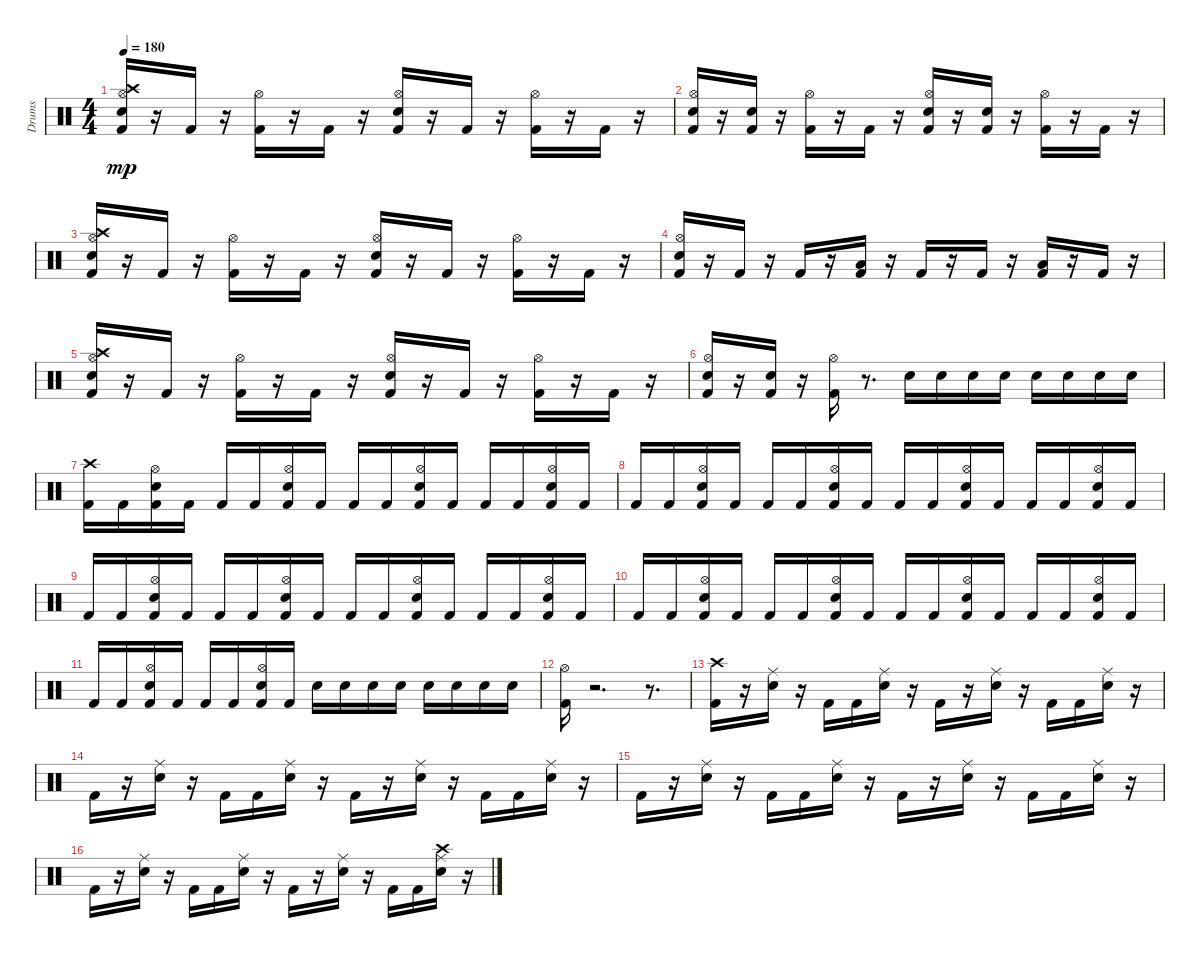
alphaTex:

\track ("Drums" "Drums") {instrument percussion}
\staff {score}
\articulation defaults
\ts (4 4)
\tempo 180
\clef neutral
\ks c
("Electric Snare (hit)" "Crash high (hit)" "Hi-Hat (open)" "Kick (hit) 2").16{dy mp} r.16 "Kick (hit) 2".16 r.16 ("Hi-Hat (open)" "Kick (hit) 2").16 r.16 "Kick (hit) 2".16 r.16 ("Kick (hit) 2" "Electric Snare (hit)" "Hi-Hat (open)").16 r.16 "Kick (hit) 2".16 r.16 ("Kick (hit) 2" "Hi-Hat (open)").16 r.16 "Kick (hit) 2".16 r.16 |
("Kick (hit) 2" "Hi-Hat (open)" "Electric Snare (hit)").16 r.16 ("Electric Snare (hit)" "Kick (hit) 2").16 r.16 ("Hi-Hat (open)" "Kick (hit) 2").16 r.16 "Kick (hit) 2".16 r.16 ("Electric Snare (hit)" "Kick (hit) 2" "Hi-Hat (open)").16 r.16 ("Electric Snare (hit)" "Kick (hit) 2").16 r.16 ("Hi-Hat (open)" "Kick (hit) 2").16 r.16 "Kick (hit) 2".16 r.16 |
("Electric Snare (hit)" "Kick (hit) 2" "Hi-Hat (open)" "Crash high (hit)").16 r.16 "Kick (hit) 2".16 r.16 ("Hi-Hat (open)" "Kick (hit) 2").16 r.16 "Kick (hit) 2".16 r.16 ("Hi-Hat (open)" "Electric Snare (hit)" "Kick (hit) 2").16 r.16 "Kick (hit) 2".16 r.16 ("Hi-Hat (open)" "Kick (hit) 2").16 r.16 "Kick (hit) 2".16 r.16 |
("Electric Snare (hit)" "Kick (hit) 2" "Hi-Hat (open)").16 r.16 "Kick (hit) 2".16 r.16 "Kick (hit) 2".16 r.16 ("Low Floor Tom (hit)" "Kick (hit) 2").16 r.16 "Kick (hit) 2".16 r.16 "Kick (hit) 2".16 r.16 ("Low Floor Tom (hit)" "Kick (hit) 2").16 r.16 "Kick (hit) 2".16 r.16 |
("Crash high (hit)" "Electric Snare (hit)" "Hi-Hat (open)" "Kick (hit) 2").16 r.16 "Kick (hit) 2".16 r.16 ("Kick (hit) 2" "Hi-Hat (open)").16 r.16 "Kick (hit) 2".16 r.16 ("Hi-Hat (open)" "Electric Snare (hit)" "Kick (hit) 2").16 r.16 "Kick (hit) 2".16 r.16 ("Kick (hit) 2" "Hi-Hat (open)").16 r.16 "Kick (hit) 2".16 r.16 |
("Electric Snare (hit)" "Kick (hit) 2" "Hi-Hat (open)").16 r.16 ("Kick (hit) 2" "Electric Snare (hit)").16 r.16 ("Kick (hit) 2" "Hi-Hat (open)").16 r.8{d} "Electric Snare (hit)".16 "Electric Snare (hit)".16 "Electric Snare (hit)".16 "Electric Snare (hit)".16 "Electric Snare (hit)".16 "Electric Snare (hit)".16 "Electric Snare (hit)".16 "Electric Snare (hit)".16 |
("Kick (hit) 2" "Crash high (hit)").16 "Kick (hit) 2".16 ("Hi-Hat (open)" "Kick (hit) 2" "Electric Snare (hit)").16 "Kick (hit) 2".16 "Kick (hit) 2".16 "Kick (hit) 2".16 ("Hi-Hat (open)" "Electric Snare (hit)" "Kick (hit) 2").16 "Kick (hit) 2".16 "Kick (hit) 2".16 "Kick (hit) 2".16 ("Hi-Hat (open)" "Kick (hit) 2" "Electric Snare (hit)").16 "Kick (hit) 2".16 "Kick (hit) 2".16 "Kick (hit) 2".16 ("Hi-Hat (open)" "Electric Snare (hit)" "Kick (hit) 2").16 "Kick (hit) 2".16 |
"Kick (hit) 2".16 "Kick (hit) 2".16 ("Hi-Hat (open)" "Kick (hit) 2" "Electric Snare (hit)").16 "Kick (hit) 2".16 "Kick (hit) 2".16 "Kick (hit) 2".16 ("Electric Snare (hit)" "Hi-Hat (open)" "Kick (hit) 2").16 "Kick (hit) 2".16 "Kick (hit) 2".16 "Kick (hit) 2".16 ("Electric Snare (hit)" "Hi-Hat (open)" "Kick (hit) 2").16 "Kick (hit) 2".16 "Kick (hit) 2".16 "Kick (hit) 2".16 ("Hi-Hat (open)" "Electric Snare (hit)" "Kick (hit) 2").16 "Kick (hit) 2".16 |
"Kick (hit) 2".16 "Kick (hit) 2".16 ("Hi-Hat (open)" "Electric Snare (hit)" "Kick (hit) 2").16 "Kick (hit) 2".16 "Kick (hit) 2".16 "Kick (hit) 2".16 ("Kick (hit) 2" "Hi-Hat (open)" "Electric Snare (hit)").16 "Kick (hit) 2".16 "Kick (hit) 2".16 "Kick (hit) 2".16 ("Electric Snare (hit)" "Hi-Hat (open)" "Kick (hit) 2").16 "Kick (hit) 2".16 "Kick (hit) 2".16 "Kick (hit) 2".16 ("Electric Snare (hit)" "Hi-Hat (open)" "Kick (hit) 2").16 "Kick (hit) 2".16 |
"Kick (hit) 2".16 "Kick (hit) 2".16 ("Hi-Hat (open)" "Electric Snare (hit)" "Kick (hit) 2").16 "Kick (hit) 2".16 "Kick (hit) 2".16 "Kick (hit) 2".16 ("Electric Snare (hit)" "Kick (hit) 2" "Hi-Hat (open)").16 "Kick (hit) 2".16 "Kick (hit) 2".16 "Kick (hit) 2".16 ("Kick (hit) 2" "Hi-Hat (open)" "Electric Snare (hit)").16 "Kick (hit) 2".16 "Kick (hit) 2".16 "Kick (hit) 2".16 ("Electric Snare (hit)" "Hi-Hat (open)" "Kick (hit) 2").16 "Kick (hit) 2".16 |
"Kick (hit) 2".16 "Kick (hit) 2".16 ("Kick (hit) 2" "Electric Snare (hit)" "Hi-Hat (open)").16 "Kick (hit) 2".16 "Kick (hit) 2".16 "Kick (hit) 2".16 ("Electric Snare (hit)" "Kick (hit) 2" "Hi-Hat (open)").16 "Kick (hit) 2".16 "Electric Snare (hit)".16 "Electric Snare (hit)".16 "Electric Snare (hit)".16 "Electric Snare (hit)".16 "Electric Snare (hit)".16 "Electric Snare (hit)".16 "Electric Snare (hit)".16 "Electric Snare (hit)".16 |
("Hi-Hat (open)" "Kick (hit) 2").16 r.2{d} r.8{d} |
("Kick (hit) 2" "Crash high (hit)").16 r.16 ("Electric Snare (hit)" "Ride (middle)").16 r.16 "Kick (hit) 2".16 "Kick (hit) 2".16 ("Ride (middle)" "Electric Snare (hit)").16 r.16 "Kick (hit) 2".16 r.16 ("Electric Snare (hit)" "Ride (middle)").16 r.16 "Kick (hit) 2".16 "Kick (hit) 2".16 ("Electric Snare (hit)" "Ride (middle)").16 r.16 |
"Kick (hit) 2".16 r.16 ("Electric Snare (hit)" "Ride (middle)").16 r.16 "Kick (hit) 2".16 "Kick (hit) 2".16 ("Ride (middle)" "Electric Snare (hit)").16 r.16 "Kick (hit) 2".16 r.16 ("Electric Snare (hit)" "Ride (middle)").16 r.16 "Kick (hit) 2".16 "Kick (hit) 2".16 ("Electric Snare (hit)" "Ride (middle)").16 r.16 |
"Kick (hit) 2".16 r.16 ("Ride (middle)" "Electric Snare (hit)").16 r.16 "Kick (hit) 2".16 "Kick (hit) 2".16 ("Electric Snare (hit)" "Ride (middle)").16 r.16 "Kick (hit) 2".16 r.16 ("Electric Snare (hit)" "Ride (middle)").16 r.16 "Kick (hit) 2".16 "Kick (hit) 2".16 ("Ride (middle)" "Electric Snare (hit)").16 r.16 |
"Kick (hit) 2".16 r.16 ("Electric Snare (hit)" "Ride (middle)").16 r.16 "Kick (hit) 2".16 "Kick (hit) 2".16 ("Ride (middle)" "Electric Snare (hit)").16 r.16 "Kick (hit) 2".16 r.16 ("Ride (middle)" "Electric Snare (hit)").16 r.16 "Kick (hit) 2".16 "Kick (hit) 2".16 ("Ride (middle)" "Crash high (hit)" "Electric Snare (hit)").16 r.16
